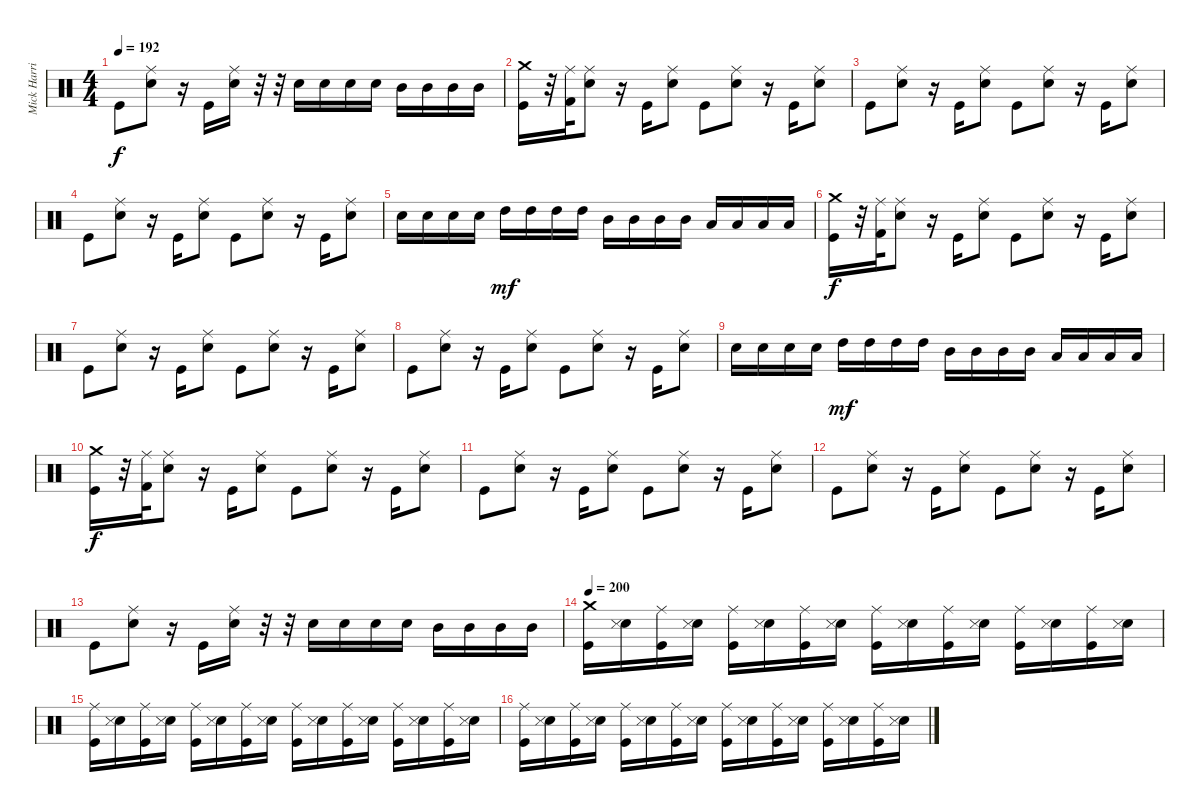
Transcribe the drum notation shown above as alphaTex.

\track ("Mick Harris (Drums)" "Mick Harri") {instrument percussion}
\staff {score}
\articulation defaults
\ts (4 4)
\tempo 192
\clef neutral
\ks c "Kick (hit)".8{dy f}
("Electric Snare (hit)" "Ride (middle)").8 r.16 "Kick (hit)".16 ("Electric Snare (hit)" "Ride (middle)").16 r.32 r.32 "Electric Snare (hit)".16 "Electric Snare (hit)".16 "Electric Snare (hit)".16 "Electric Snare (hit)".16 "Mid Tom (hit)".16 "Mid Tom (hit)".16 "Mid Tom (hit)".16 "Mid Tom (hit)".16 |
("Kick (hit)" "Crash medium (hit)").16 r.32 ("Kick (hit) 2" "Ride (middle)").32 ("Electric Snare (hit)" "Ride (middle)").8 r.16 "Kick (hit)".16 ("Electric Snare (hit)" "Ride (middle)").8 "Kick (hit)".8 ("Electric Snare (hit)" "Ride (middle)").8 r.16 "Kick (hit)".16 ("Electric Snare (hit)" "Ride (middle)").8 |
"Kick (hit)".8 ("Electric Snare (hit)" "Ride (middle)").8 r.16 "Kick (hit)".16 ("Electric Snare (hit)" "Ride (middle)").8 "Kick (hit)".8 ("Electric Snare (hit)" "Ride (middle)").8 r.16 "Kick (hit)".16 ("Electric Snare (hit)" "Ride (middle)").8 |
"Kick (hit)".8 ("Electric Snare (hit)" "Ride (middle)").8 r.16 "Kick (hit)".16 ("Electric Snare (hit)" "Ride (middle)").8 "Kick (hit)".8 ("Electric Snare (hit)" "Ride (middle)").8 r.16 "Kick (hit)".16 ("Electric Snare (hit)" "Ride (middle)").8 |
"Electric Snare (hit)".16 "Electric Snare (hit)".16 "Electric Snare (hit)".16 "Electric Snare (hit)".16 "High Tom (hit)".16{dy mf} "High Tom (hit)".16 "High Tom (hit)".16 "High Tom (hit)".16 "Mid Tom (hit)".16 "Mid Tom (hit)".16 "Mid Tom (hit)".16 "Mid Tom (hit)".16 "Low Tom (hit)".16 "Low Tom (hit)".16 "Low Tom (hit)".16 "Low Tom (hit)".16 |
("Kick (hit)" "Crash medium (hit)").16{dy f} r.32 ("Kick (hit) 2" "Ride (middle)").32 ("Electric Snare (hit)" "Ride (middle)").8 r.16 "Kick (hit)".16 ("Electric Snare (hit)" "Ride (middle)").8 "Kick (hit)".8 ("Electric Snare (hit)" "Ride (middle)").8 r.16 "Kick (hit)".16 ("Electric Snare (hit)" "Ride (middle)").8 |
"Kick (hit)".8 ("Electric Snare (hit)" "Ride (middle)").8 r.16 "Kick (hit)".16 ("Electric Snare (hit)" "Ride (middle)").8 "Kick (hit)".8 ("Electric Snare (hit)" "Ride (middle)").8 r.16 "Kick (hit)".16 ("Electric Snare (hit)" "Ride (middle)").8 |
"Kick (hit)".8 ("Electric Snare (hit)" "Ride (middle)").8 r.16 "Kick (hit)".16 ("Electric Snare (hit)" "Ride (middle)").8 "Kick (hit)".8 ("Electric Snare (hit)" "Ride (middle)").8 r.16 "Kick (hit)".16 ("Electric Snare (hit)" "Ride (middle)").8 |
"Electric Snare (hit)".16 "Electric Snare (hit)".16 "Electric Snare (hit)".16 "Electric Snare (hit)".16 "High Tom (hit)".16{dy mf} "High Tom (hit)".16 "High Tom (hit)".16 "High Tom (hit)".16 "Mid Tom (hit)".16 "Mid Tom (hit)".16 "Mid Tom (hit)".16 "Mid Tom (hit)".16 "Low Tom (hit)".16 "Low Tom (hit)".16 "Low Tom (hit)".16 "Low Tom (hit)".16 |
("Kick (hit)" "Crash medium (hit)").16{dy f} r.32 ("Kick (hit) 2" "Ride (middle)").32 ("Electric Snare (hit)" "Ride (middle)").8 r.16 "Kick (hit)".16 ("Electric Snare (hit)" "Ride (middle)").8 "Kick (hit)".8 ("Electric Snare (hit)" "Ride (middle)").8 r.16 "Kick (hit)".16 ("Electric Snare (hit)" "Ride (middle)").8 |
"Kick (hit)".8 ("Electric Snare (hit)" "Ride (middle)").8 r.16 "Kick (hit)".16 ("Electric Snare (hit)" "Ride (middle)").8 "Kick (hit)".8 ("Electric Snare (hit)" "Ride (middle)").8 r.16 "Kick (hit)".16 ("Electric Snare (hit)" "Ride (middle)").8 |
"Kick (hit)".8 ("Electric Snare (hit)" "Ride (middle)").8 r.16 "Kick (hit)".16 ("Electric Snare (hit)" "Ride (middle)").8 "Kick (hit)".8 ("Electric Snare (hit)" "Ride (middle)").8 r.16 "Kick (hit)".16 ("Electric Snare (hit)" "Ride (middle)").8 |
"Kick (hit)".8 ("Electric Snare (hit)" "Ride (middle)").8 r.16 "Kick (hit)".16 ("Electric Snare (hit)" "Ride (middle)").16 r.32 r.32 "Electric Snare (hit)".16 "Electric Snare (hit)".16 "Electric Snare (hit)".16 "Electric Snare (hit)".16 "Mid Tom (hit)".16 "Mid Tom (hit)".16 "Mid Tom (hit)".16 "Mid Tom (hit)".16 |
\tempo 200
("Kick (hit)" "Crash medium (hit)").16 ("Electric Snare (hit)" "Snare (side stick) 3").16 ("Kick (hit)" "Ride (middle)").16 ("Electric Snare (hit)" "Snare (side stick) 3").16 ("Kick (hit)" "Ride (middle)").16 ("Electric Snare (hit)" "Snare (side stick) 3").16 ("Kick (hit)" "Ride (middle)").16 ("Electric Snare (hit)" "Snare (side stick) 3").16 ("Kick (hit)" "Ride (middle)").16 ("Electric Snare (hit)" "Snare (side stick) 3").16 ("Kick (hit)" "Ride (middle)").16 ("Electric Snare (hit)" "Snare (side stick) 3").16 ("Kick (hit)" "Ride (middle)").16 ("Electric Snare (hit)" "Snare (side stick) 3").16 ("Kick (hit)" "Ride (middle)").16 ("Electric Snare (hit)" "Snare (side stick) 3").16 |
("Kick (hit)" "Ride (middle)").16 ("Electric Snare (hit)" "Snare (side stick) 3").16 ("Kick (hit)" "Ride (middle)").16 ("Electric Snare (hit)" "Snare (side stick) 3").16 ("Kick (hit)" "Ride (middle)").16 ("Electric Snare (hit)" "Snare (side stick) 3").16 ("Kick (hit)" "Ride (middle)").16 ("Electric Snare (hit)" "Snare (side stick) 3").16 ("Kick (hit)" "Ride (middle)").16 ("Electric Snare (hit)" "Snare (side stick) 3").16 ("Kick (hit)" "Ride (middle)").16 ("Electric Snare (hit)" "Snare (side stick) 3").16 ("Kick (hit)" "Ride (middle)").16 ("Electric Snare (hit)" "Snare (side stick) 3").16 ("Kick (hit)" "Ride (middle)").16 ("Electric Snare (hit)" "Snare (side stick) 3").16 |
("Kick (hit)" "Ride (middle)").16 ("Electric Snare (hit)" "Snare (side stick) 3").16 ("Kick (hit)" "Ride (middle)").16 ("Electric Snare (hit)" "Snare (side stick) 3").16 ("Kick (hit)" "Ride (middle)").16 ("Electric Snare (hit)" "Snare (side stick) 3").16 ("Kick (hit)" "Ride (middle)").16 ("Electric Snare (hit)" "Snare (side stick) 3").16 ("Kick (hit)" "Ride (middle)").16 ("Electric Snare (hit)" "Snare (side stick) 3").16 ("Kick (hit)" "Ride (middle)").16 ("Electric Snare (hit)" "Snare (side stick) 3").16 ("Kick (hit)" "Ride (middle)").16 ("Electric Snare (hit)" "Snare (side stick) 3").16 ("Kick (hit)" "Ride (middle)").16 ("Electric Snare (hit)" "Snare (side stick) 3").16
